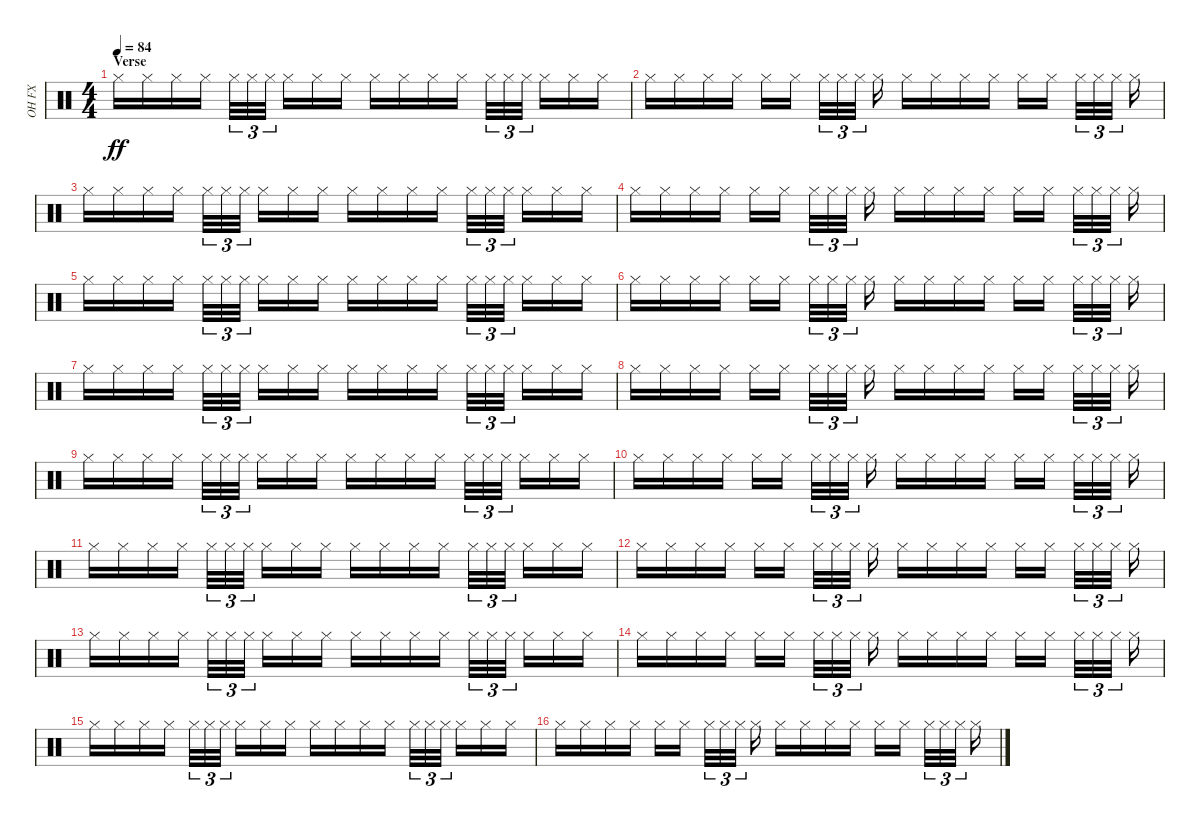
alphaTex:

\track ("OH FX" "OH FX") {instrument percussion}
\staff {score}
\articulation defaults
\ts (4 4)
\section ("" "Verse")
\tempo 84
\clef neutral
\ks c "Hi-Hat (closed)".16{dy ff} "Hi-Hat (closed)".16 "Hi-Hat (closed)".16 "Hi-Hat (closed)".16 "Hi-Hat (closed)".32{tu (3 2)} "Hi-Hat (closed)".32{tu (3 2)} "Hi-Hat (closed)".32{tu (3 2) beam splitsecondary} "Hi-Hat (closed)".16 "Hi-Hat (closed)".16 "Hi-Hat (closed)".16 "Hi-Hat (closed)".16 "Hi-Hat (closed)".16 "Hi-Hat (closed)".16 "Hi-Hat (closed)".16 "Hi-Hat (closed)".32{tu (3 2)} "Hi-Hat (closed)".32{tu (3 2)} "Hi-Hat (closed)".32{tu (3 2) beam splitsecondary} "Hi-Hat (closed)".16 "Hi-Hat (closed)".16 "Hi-Hat (closed)".16
|
"Hi-Hat (closed)".16 "Hi-Hat (closed)".16 "Hi-Hat (closed)".16 "Hi-Hat (closed)".16 "Hi-Hat (closed)".16 "Hi-Hat (closed)".16{beam splitsecondary} "Hi-Hat (closed)".32{tu (3 2)} "Hi-Hat (closed)".32{tu (3 2)} "Hi-Hat (closed)".32{tu (3 2) beam splitsecondary} "Hi-Hat (closed)".16 "Hi-Hat (closed)".16 "Hi-Hat (closed)".16 "Hi-Hat (closed)".16 "Hi-Hat (closed)".16 "Hi-Hat (closed)".16 "Hi-Hat (closed)".16{beam splitsecondary} "Hi-Hat (closed)".32{tu (3 2)} "Hi-Hat (closed)".32{tu (3 2)} "Hi-Hat (closed)".32{tu (3 2) beam splitsecondary} "Hi-Hat (closed)".16 |
"Hi-Hat (closed)".16 "Hi-Hat (closed)".16 "Hi-Hat (closed)".16 "Hi-Hat (closed)".16 "Hi-Hat (closed)".32{tu (3 2)} "Hi-Hat (closed)".32{tu (3 2)} "Hi-Hat (closed)".32{tu (3 2) beam splitsecondary} "Hi-Hat (closed)".16 "Hi-Hat (closed)".16 "Hi-Hat (closed)".16 "Hi-Hat (closed)".16 "Hi-Hat (closed)".16 "Hi-Hat (closed)".16 "Hi-Hat (closed)".16 "Hi-Hat (closed)".32{tu (3 2)} "Hi-Hat (closed)".32{tu (3 2)} "Hi-Hat (closed)".32{tu (3 2) beam splitsecondary} "Hi-Hat (closed)".16 "Hi-Hat (closed)".16 "Hi-Hat (closed)".16 |
"Hi-Hat (closed)".16 "Hi-Hat (closed)".16 "Hi-Hat (closed)".16 "Hi-Hat (closed)".16 "Hi-Hat (closed)".16 "Hi-Hat (closed)".16{beam splitsecondary} "Hi-Hat (closed)".32{tu (3 2)} "Hi-Hat (closed)".32{tu (3 2)} "Hi-Hat (closed)".32{tu (3 2) beam splitsecondary} "Hi-Hat (closed)".16 "Hi-Hat (closed)".16 "Hi-Hat (closed)".16 "Hi-Hat (closed)".16 "Hi-Hat (closed)".16 "Hi-Hat (closed)".16 "Hi-Hat (closed)".16{beam splitsecondary} "Hi-Hat (closed)".32{tu (3 2)} "Hi-Hat (closed)".32{tu (3 2)} "Hi-Hat (closed)".32{tu (3 2) beam splitsecondary} "Hi-Hat (closed)".16 |
"Hi-Hat (closed)".16 "Hi-Hat (closed)".16 "Hi-Hat (closed)".16 "Hi-Hat (closed)".16 "Hi-Hat (closed)".32{tu (3 2)} "Hi-Hat (closed)".32{tu (3 2)} "Hi-Hat (closed)".32{tu (3 2) beam splitsecondary} "Hi-Hat (closed)".16 "Hi-Hat (closed)".16 "Hi-Hat (closed)".16 "Hi-Hat (closed)".16 "Hi-Hat (closed)".16 "Hi-Hat (closed)".16 "Hi-Hat (closed)".16 "Hi-Hat (closed)".32{tu (3 2)} "Hi-Hat (closed)".32{tu (3 2)} "Hi-Hat (closed)".32{tu (3 2) beam splitsecondary} "Hi-Hat (closed)".16 "Hi-Hat (closed)".16 "Hi-Hat (closed)".16 |
"Hi-Hat (closed)".16 "Hi-Hat (closed)".16 "Hi-Hat (closed)".16 "Hi-Hat (closed)".16 "Hi-Hat (closed)".16 "Hi-Hat (closed)".16{beam splitsecondary} "Hi-Hat (closed)".32{tu (3 2)} "Hi-Hat (closed)".32{tu (3 2)} "Hi-Hat (closed)".32{tu (3 2) beam splitsecondary} "Hi-Hat (closed)".16 "Hi-Hat (closed)".16 "Hi-Hat (closed)".16 "Hi-Hat (closed)".16 "Hi-Hat (closed)".16 "Hi-Hat (closed)".16 "Hi-Hat (closed)".16{beam splitsecondary} "Hi-Hat (closed)".32{tu (3 2)} "Hi-Hat (closed)".32{tu (3 2)} "Hi-Hat (closed)".32{tu (3 2) beam splitsecondary} "Hi-Hat (closed)".16 |
"Hi-Hat (closed)".16 "Hi-Hat (closed)".16 "Hi-Hat (closed)".16 "Hi-Hat (closed)".16 "Hi-Hat (closed)".32{tu (3 2)} "Hi-Hat (closed)".32{tu (3 2)} "Hi-Hat (closed)".32{tu (3 2) beam splitsecondary} "Hi-Hat (closed)".16 "Hi-Hat (closed)".16 "Hi-Hat (closed)".16 "Hi-Hat (closed)".16 "Hi-Hat (closed)".16 "Hi-Hat (closed)".16 "Hi-Hat (closed)".16 "Hi-Hat (closed)".32{tu (3 2)} "Hi-Hat (closed)".32{tu (3 2)} "Hi-Hat (closed)".32{tu (3 2) beam splitsecondary} "Hi-Hat (closed)".16 "Hi-Hat (closed)".16 "Hi-Hat (closed)".16 |
"Hi-Hat (closed)".16 "Hi-Hat (closed)".16 "Hi-Hat (closed)".16 "Hi-Hat (closed)".16 "Hi-Hat (closed)".16 "Hi-Hat (closed)".16{beam splitsecondary} "Hi-Hat (closed)".32{tu (3 2)} "Hi-Hat (closed)".32{tu (3 2)} "Hi-Hat (closed)".32{tu (3 2) beam splitsecondary} "Hi-Hat (closed)".16 "Hi-Hat (closed)".16 "Hi-Hat (closed)".16 "Hi-Hat (closed)".16 "Hi-Hat (closed)".16 "Hi-Hat (closed)".16 "Hi-Hat (closed)".16{beam splitsecondary} "Hi-Hat (closed)".32{tu (3 2)} "Hi-Hat (closed)".32{tu (3 2)} "Hi-Hat (closed)".32{tu (3 2) beam splitsecondary} "Hi-Hat (closed)".16 |
"Hi-Hat (closed)".16 "Hi-Hat (closed)".16 "Hi-Hat (closed)".16 "Hi-Hat (closed)".16 "Hi-Hat (closed)".32{tu (3 2)} "Hi-Hat (closed)".32{tu (3 2)} "Hi-Hat (closed)".32{tu (3 2) beam splitsecondary} "Hi-Hat (closed)".16 "Hi-Hat (closed)".16 "Hi-Hat (closed)".16 "Hi-Hat (closed)".16 "Hi-Hat (closed)".16 "Hi-Hat (closed)".16 "Hi-Hat (closed)".16 "Hi-Hat (closed)".32{tu (3 2)} "Hi-Hat (closed)".32{tu (3 2)} "Hi-Hat (closed)".32{tu (3 2) beam splitsecondary} "Hi-Hat (closed)".16 "Hi-Hat (closed)".16 "Hi-Hat (closed)".16 |
"Hi-Hat (closed)".16 "Hi-Hat (closed)".16 "Hi-Hat (closed)".16 "Hi-Hat (closed)".16 "Hi-Hat (closed)".16 "Hi-Hat (closed)".16{beam splitsecondary} "Hi-Hat (closed)".32{tu (3 2)} "Hi-Hat (closed)".32{tu (3 2)} "Hi-Hat (closed)".32{tu (3 2) beam splitsecondary} "Hi-Hat (closed)".16 "Hi-Hat (closed)".16 "Hi-Hat (closed)".16 "Hi-Hat (closed)".16 "Hi-Hat (closed)".16 "Hi-Hat (closed)".16 "Hi-Hat (closed)".16{beam splitsecondary} "Hi-Hat (closed)".32{tu (3 2)} "Hi-Hat (closed)".32{tu (3 2)} "Hi-Hat (closed)".32{tu (3 2) beam splitsecondary} "Hi-Hat (closed)".16 |
"Hi-Hat (closed)".16 "Hi-Hat (closed)".16 "Hi-Hat (closed)".16 "Hi-Hat (closed)".16 "Hi-Hat (closed)".32{tu (3 2)} "Hi-Hat (closed)".32{tu (3 2)} "Hi-Hat (closed)".32{tu (3 2) beam splitsecondary} "Hi-Hat (closed)".16 "Hi-Hat (closed)".16 "Hi-Hat (closed)".16 "Hi-Hat (closed)".16 "Hi-Hat (closed)".16 "Hi-Hat (closed)".16 "Hi-Hat (closed)".16 "Hi-Hat (closed)".32{tu (3 2)} "Hi-Hat (closed)".32{tu (3 2)} "Hi-Hat (closed)".32{tu (3 2) beam splitsecondary} "Hi-Hat (closed)".16 "Hi-Hat (closed)".16 "Hi-Hat (closed)".16 |
"Hi-Hat (closed)".16 "Hi-Hat (closed)".16 "Hi-Hat (closed)".16 "Hi-Hat (closed)".16 "Hi-Hat (closed)".16 "Hi-Hat (closed)".16{beam splitsecondary} "Hi-Hat (closed)".32{tu (3 2)} "Hi-Hat (closed)".32{tu (3 2)} "Hi-Hat (closed)".32{tu (3 2) beam splitsecondary} "Hi-Hat (closed)".16 "Hi-Hat (closed)".16 "Hi-Hat (closed)".16 "Hi-Hat (closed)".16 "Hi-Hat (closed)".16 "Hi-Hat (closed)".16 "Hi-Hat (closed)".16{beam splitsecondary} "Hi-Hat (closed)".32{tu (3 2)} "Hi-Hat (closed)".32{tu (3 2)} "Hi-Hat (closed)".32{tu (3 2) beam splitsecondary} "Hi-Hat (closed)".16 |
"Hi-Hat (closed)".16 "Hi-Hat (closed)".16 "Hi-Hat (closed)".16 "Hi-Hat (closed)".16 "Hi-Hat (closed)".32{tu (3 2)} "Hi-Hat (closed)".32{tu (3 2)} "Hi-Hat (closed)".32{tu (3 2) beam splitsecondary} "Hi-Hat (closed)".16 "Hi-Hat (closed)".16 "Hi-Hat (closed)".16 "Hi-Hat (closed)".16 "Hi-Hat (closed)".16 "Hi-Hat (closed)".16 "Hi-Hat (closed)".16 "Hi-Hat (closed)".32{tu (3 2)} "Hi-Hat (closed)".32{tu (3 2)} "Hi-Hat (closed)".32{tu (3 2) beam splitsecondary} "Hi-Hat (closed)".16 "Hi-Hat (closed)".16 "Hi-Hat (closed)".16 |
"Hi-Hat (closed)".16 "Hi-Hat (closed)".16 "Hi-Hat (closed)".16 "Hi-Hat (closed)".16 "Hi-Hat (closed)".16 "Hi-Hat (closed)".16{beam splitsecondary} "Hi-Hat (closed)".32{tu (3 2)} "Hi-Hat (closed)".32{tu (3 2)} "Hi-Hat (closed)".32{tu (3 2) beam splitsecondary} "Hi-Hat (closed)".16 "Hi-Hat (closed)".16 "Hi-Hat (closed)".16 "Hi-Hat (closed)".16 "Hi-Hat (closed)".16 "Hi-Hat (closed)".16 "Hi-Hat (closed)".16{beam splitsecondary} "Hi-Hat (closed)".32{tu (3 2)} "Hi-Hat (closed)".32{tu (3 2)} "Hi-Hat (closed)".32{tu (3 2) beam splitsecondary} "Hi-Hat (closed)".16 |
"Hi-Hat (closed)".16 "Hi-Hat (closed)".16 "Hi-Hat (closed)".16 "Hi-Hat (closed)".16 "Hi-Hat (closed)".32{tu (3 2)} "Hi-Hat (closed)".32{tu (3 2)} "Hi-Hat (closed)".32{tu (3 2) beam splitsecondary} "Hi-Hat (closed)".16 "Hi-Hat (closed)".16 "Hi-Hat (closed)".16 "Hi-Hat (closed)".16 "Hi-Hat (closed)".16 "Hi-Hat (closed)".16 "Hi-Hat (closed)".16 "Hi-Hat (closed)".32{tu (3 2)} "Hi-Hat (closed)".32{tu (3 2)} "Hi-Hat (closed)".32{tu (3 2) beam splitsecondary} "Hi-Hat (closed)".16 "Hi-Hat (closed)".16 "Hi-Hat (closed)".16 |
"Hi-Hat (closed)".16 "Hi-Hat (closed)".16 "Hi-Hat (closed)".16 "Hi-Hat (closed)".16 "Hi-Hat (closed)".16 "Hi-Hat (closed)".16{beam splitsecondary} "Hi-Hat (closed)".32{tu (3 2)} "Hi-Hat (closed)".32{tu (3 2)} "Hi-Hat (closed)".32{tu (3 2) beam splitsecondary} "Hi-Hat (closed)".16 "Hi-Hat (closed)".16 "Hi-Hat (closed)".16 "Hi-Hat (closed)".16 "Hi-Hat (closed)".16 "Hi-Hat (closed)".16 "Hi-Hat (closed)".16{beam splitsecondary} "Hi-Hat (closed)".32{tu (3 2)} "Hi-Hat (closed)".32{tu (3 2)} "Hi-Hat (closed)".32{tu (3 2) beam splitsecondary} "Hi-Hat (closed)".16
